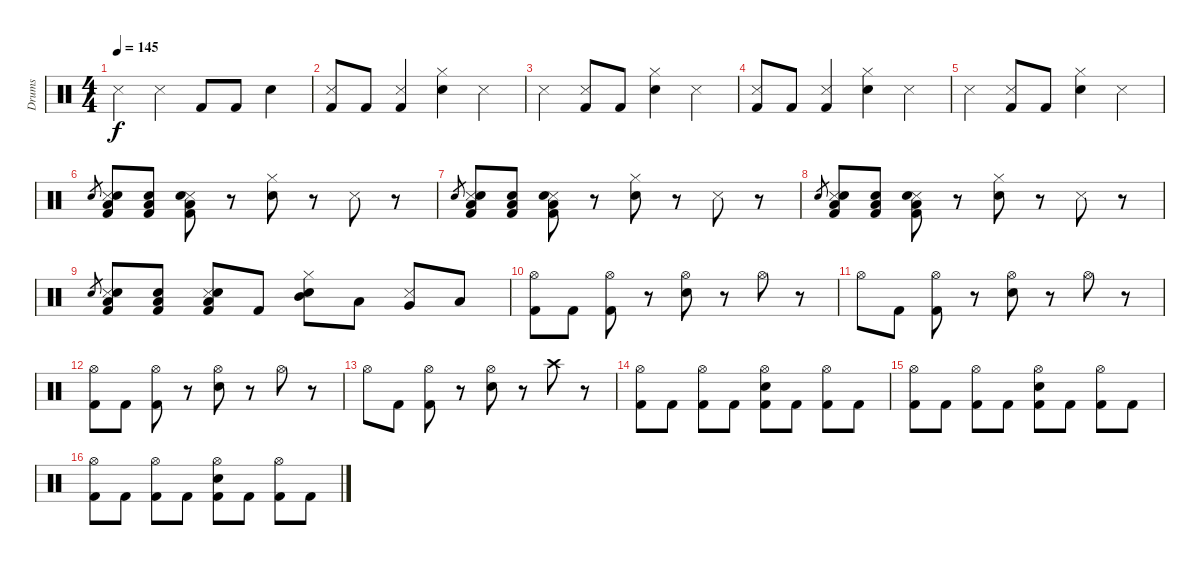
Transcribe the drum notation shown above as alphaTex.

\track ("Drums" "Drums") {instrument percussion}
\staff {score}
\articulation defaults
\ts (4 4)
\tempo 145
\clef neutral
\ks c "Snare (side stick) 3".4{dy f} "Snare (side stick) 3".4 "Kick (hit) 2".8 "Kick (hit) 2".8 "Electric Snare (hit)".4
|
("Snare (side stick) 3" "Kick (hit) 2").8 "Kick (hit) 2".8 ("Snare (side stick) 3" "Kick (hit) 2").4 ("Hi-Hat (closed)" "Electric Snare (hit)").4 "Snare (side stick) 3".4 |
"Snare (side stick) 3".4 ("Snare (side stick) 3" "Kick (hit) 2").8 "Kick (hit) 2".8 ("Hi-Hat (closed)" "Electric Snare (hit)").4 "Snare (side stick) 3".4 |
("Snare (side stick) 3" "Kick (hit) 2").8 "Kick (hit) 2".8 ("Snare (side stick) 3" "Kick (hit) 2").4 ("Hi-Hat (closed)" "Electric Snare (hit)").4 "Snare (side stick) 3".4 |
"Snare (side stick) 3".4 ("Snare (side stick) 3" "Kick (hit) 2").8 "Kick (hit) 2".8 ("Hi-Hat (closed)" "Electric Snare (hit)").4 "Snare (side stick) 3".4 |
"Electric Snare (hit)".8{gr} ("Snare (side stick) 3" "Electric Snare (hit)" "Low Floor Tom (hit)" "Kick (hit) 2").8 ("Electric Snare (hit)" "Low Floor Tom (hit)" "Kick (hit) 2").8 ("Snare (side stick) 3" "Electric Snare (hit)" "Low Floor Tom (hit)" "Kick (hit) 2").8 r.8 ("Hi-Hat (closed)" "Snare (hit) 2").8 r.8 "Snare (side stick) 3".8 r.8 |
"Electric Snare (hit)".8{gr} ("Snare (side stick) 3" "Electric Snare (hit)" "Low Floor Tom (hit)" "Kick (hit) 2").8 ("Electric Snare (hit)" "Low Floor Tom (hit)" "Kick (hit) 2").8 ("Snare (side stick) 3" "Electric Snare (hit)" "Low Floor Tom (hit)" "Kick (hit) 2").8 r.8 ("Hi-Hat (closed)" "Snare (hit) 2").8 r.8 "Snare (side stick) 3".8 r.8 |
"Electric Snare (hit)".8{gr} ("Snare (side stick) 3" "Electric Snare (hit)" "Low Floor Tom (hit)" "Kick (hit) 2").8 ("Electric Snare (hit)" "Low Floor Tom (hit)" "Kick (hit) 2").8 ("Snare (side stick) 3" "Electric Snare (hit)" "Low Floor Tom (hit)" "Kick (hit) 2").8 r.8 ("Hi-Hat (closed)" "Snare (hit) 2").8 r.8 "Snare (side stick) 3".8 r.8 |
"Electric Snare (hit)".8{gr} ("Snare (side stick) 3" "Electric Snare (hit)" "Low Floor Tom (hit)" "Kick (hit) 2").8 ("Electric Snare (hit)" "Low Floor Tom (hit)" "Kick (hit) 2").8 ("Snare (side stick) 3" "Electric Snare (hit)" "Low Floor Tom (hit)" "Kick (hit) 2").8 "Kick (hit) 2".8 ("Hi-Hat (closed)" "Mid Tom (hit)" "Snare (hit) 2").8 "Low Tom (hit)".8 ("Snare (side stick) 3" "Very Low Tom (hit)").8 "Low Floor Tom (hit)".8 |
("Hi-Hat (open)" "Kick (hit) 2").8 "Kick (hit) 2".8 ("Hi-Hat (open)" "Kick (hit) 2").8 r.8 ("Hi-Hat (open)" "Snare (hit) 2").8 r.8 "Hi-Hat (open)".8 r.8 |
"Hi-Hat (open)".8 "Kick (hit) 2".8 ("Hi-Hat (open)" "Kick (hit) 2").8 r.8 ("Hi-Hat (open)" "Snare (hit) 2").8 r.8 "Hi-Hat (open)".8 r.8 |
("Hi-Hat (open)" "Kick (hit) 2").8 "Kick (hit) 2".8 ("Hi-Hat (open)" "Kick (hit) 2").8 r.8 ("Hi-Hat (open)" "Snare (hit) 2").8 r.8 "Hi-Hat (open)".8 r.8 |
"Hi-Hat (open)".8 "Kick (hit) 2".8 ("Hi-Hat (open)" "Kick (hit) 2").8 r.8 ("Hi-Hat (open)" "Snare (hit) 2").8 r.8 "Crash high (hit)".8 r.8 |
("Hi-Hat (open)" "Kick (hit) 2").8 "Kick (hit) 2".8 ("Hi-Hat (open)" "Kick (hit) 2").8 "Kick (hit) 2".8 ("Hi-Hat (open)" "Snare (hit) 2" "Kick (hit) 2").8 "Kick (hit) 2".8 ("Hi-Hat (open)" "Kick (hit) 2").8 "Kick (hit) 2".8 |
("Hi-Hat (open)" "Kick (hit) 2").8 "Kick (hit) 2".8 ("Hi-Hat (open)" "Kick (hit) 2").8 "Kick (hit) 2".8 ("Hi-Hat (open)" "Snare (hit) 2" "Kick (hit) 2").8 "Kick (hit) 2".8 ("Hi-Hat (open)" "Kick (hit) 2").8 "Kick (hit) 2".8 |
("Hi-Hat (open)" "Kick (hit) 2").8 "Kick (hit) 2".8 ("Hi-Hat (open)" "Kick (hit) 2").8 "Kick (hit) 2".8 ("Hi-Hat (open)" "Snare (hit) 2" "Kick (hit) 2").8 "Kick (hit) 2".8 ("Hi-Hat (open)" "Kick (hit) 2").8 "Kick (hit) 2".8
